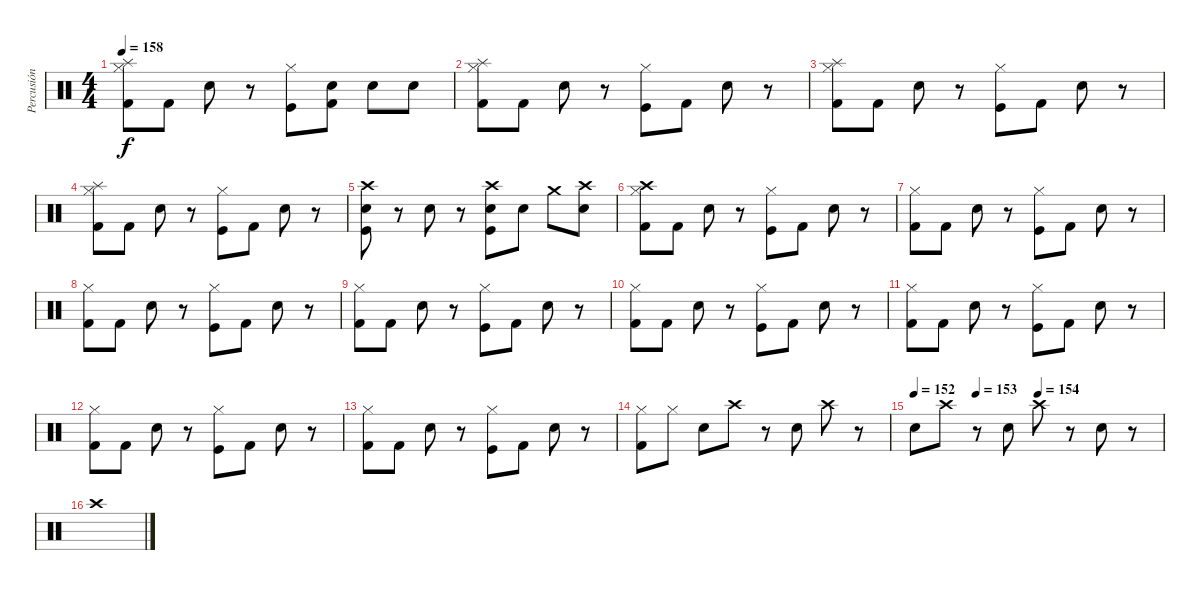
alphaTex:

\track ("Percusión" "Percusión") {instrument percussion}
\staff {score}
\articulation defaults
\ts (4 4)
\tempo 158
\clef neutral
\ks c
("Hi-Hat (closed)" "Splash (hit)" "Kick (hit) 2").8{dy f} "Kick (hit) 2".8 "Electric Snare (hit)".8 r.8 ("Hi-Hat (closed)" "Kick (hit)").8 ("Electric Snare (hit)" "Kick (hit) 2").8 "Electric Snare (hit)".8 "Electric Snare (hit)".8 |
("Hi-Hat (closed)" "Splash (hit)" "Kick (hit) 2").8 "Kick (hit) 2".8 "Electric Snare (hit)".8 r.8 ("Hi-Hat (closed)" "Kick (hit)").8 "Kick (hit) 2".8 "Electric Snare (hit)".8 r.8 |
("Hi-Hat (closed)" "Splash (hit)" "Kick (hit) 2").8 "Kick (hit) 2".8 "Electric Snare (hit)".8 r.8 ("Hi-Hat (closed)" "Kick (hit)").8 "Kick (hit) 2".8 "Electric Snare (hit)".8 r.8 |
("Hi-Hat (closed)" "Splash (hit)" "Kick (hit) 2").8 "Kick (hit) 2".8 "Electric Snare (hit)".8 r.8 ("Hi-Hat (closed)" "Kick (hit)").8 "Kick (hit) 2".8 "Electric Snare (hit)".8 r.8 |
("Electric Snare (hit)" "Kick (hit)" "Crash high (hit)").8 r.8 "Electric Snare (hit)".8 r.8 ("Electric Snare (hit)" "Kick (hit)" "Crash high (hit)").8 "Electric Snare (hit)".8 "Crash medium (hit)".8 ("Electric Snare (hit)" "Crash high (hit)").8 |
("Hi-Hat (closed)" "Kick (hit) 2" "Crash high (hit)").8 "Kick (hit) 2".8 "Electric Snare (hit)".8 r.8 ("Hi-Hat (closed)" "Kick (hit)").8 "Kick (hit) 2".8 "Electric Snare (hit)".8 r.8 |
("Hi-Hat (closed)" "Kick (hit) 2").8 "Kick (hit) 2".8 "Electric Snare (hit)".8 r.8 ("Hi-Hat (closed)" "Kick (hit)").8 "Kick (hit) 2".8 "Electric Snare (hit)".8 r.8 |
("Hi-Hat (closed)" "Kick (hit) 2").8 "Kick (hit) 2".8 "Electric Snare (hit)".8 r.8 ("Hi-Hat (closed)" "Kick (hit)").8 "Kick (hit) 2".8 "Electric Snare (hit)".8 r.8 |
("Hi-Hat (closed)" "Kick (hit) 2").8 "Kick (hit) 2".8 "Electric Snare (hit)".8 r.8 ("Hi-Hat (closed)" "Kick (hit)").8 "Kick (hit) 2".8 "Electric Snare (hit)".8 r.8 |
("Hi-Hat (closed)" "Kick (hit) 2").8 "Kick (hit) 2".8 "Electric Snare (hit)".8 r.8 ("Hi-Hat (closed)" "Kick (hit)").8 "Kick (hit) 2".8 "Electric Snare (hit)".8 r.8 |
("Hi-Hat (closed)" "Kick (hit) 2").8 "Kick (hit) 2".8 "Electric Snare (hit)".8 r.8 ("Hi-Hat (closed)" "Kick (hit)").8 "Kick (hit) 2".8 "Electric Snare (hit)".8 r.8 |
("Hi-Hat (closed)" "Kick (hit) 2").8 "Kick (hit) 2".8 "Electric Snare (hit)".8 r.8 ("Hi-Hat (closed)" "Kick (hit)").8 "Kick (hit) 2".8 "Electric Snare (hit)".8 r.8 |
("Hi-Hat (closed)" "Kick (hit) 2").8 "Kick (hit) 2".8 "Electric Snare (hit)".8 r.8 ("Hi-Hat (closed)" "Kick (hit)").8 "Kick (hit) 2".8 "Electric Snare (hit)".8 r.8 |
("Hi-Hat (closed)" "Kick (hit) 2").8 "Hi-Hat (closed)".8 "Electric Snare (hit)".8 "Crash high (hit)".8 r.8 "Electric Snare (hit)".8 "Crash high (hit)".8 r.8 |
\tempo 152
\tempo (153 0.25)
\tempo (154 0.5)
"Electric Snare (hit)".8 "Crash high (hit)".8 r.8 "Electric Snare (hit)".8 "Crash high (hit)".8 r.8 "Electric Snare (hit)".8 r.8 |
"Crash high (hit)".1
